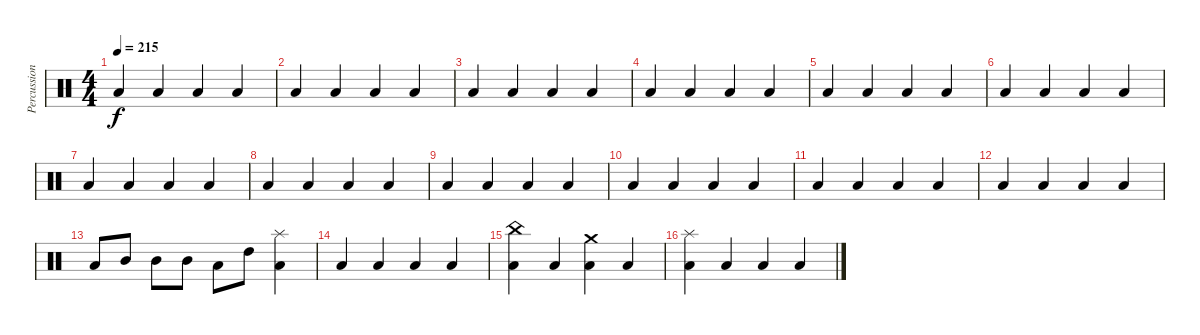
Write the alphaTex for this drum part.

\track ("Percussion" "Percussion") {instrument percussion}
\staff {score}
\articulation defaults
\ts (4 4)
\tempo 215
\clef neutral
\ks c "Low Tom (hit)".4{dy f} "Low Tom (hit)".4 "Low Tom (hit)".4 "Low Tom (hit)".4
|
"Low Tom (hit)".4 "Low Tom (hit)".4 "Low Tom (hit)".4 "Low Tom (hit)".4 |
"Low Tom (hit)".4 "Low Tom (hit)".4 "Low Tom (hit)".4 "Low Tom (hit)".4 |
"Low Tom (hit)".4 "Low Tom (hit)".4 "Low Tom (hit)".4 "Low Tom (hit)".4 |
"Low Tom (hit)".4 "Low Tom (hit)".4 "Low Tom (hit)".4 "Low Tom (hit)".4 |
"Low Tom (hit)".4 "Low Tom (hit)".4 "Low Tom (hit)".4 "Low Tom (hit)".4 |
"Low Tom (hit)".4 "Low Tom (hit)".4 "Low Tom (hit)".4 "Low Tom (hit)".4 |
"Low Tom (hit)".4 "Low Tom (hit)".4 "Low Tom (hit)".4 "Low Tom (hit)".4 |
"Low Tom (hit)".4 "Low Tom (hit)".4 "Low Tom (hit)".4 "Low Tom (hit)".4 |
"Low Tom (hit)".4 "Low Tom (hit)".4 "Low Tom (hit)".4 "Low Tom (hit)".4 |
"Low Tom (hit)".4 "Low Tom (hit)".4 "Low Tom (hit)".4 "Low Tom (hit)".4 |
"Low Tom (hit)".4 "Low Tom (hit)".4 "Low Tom (hit)".4 "Low Tom (hit)".4 |
"Low Tom (hit)".8 "Mid Tom (hit)".8 "Mid Tom (hit)".8 "Mid Tom (hit)".8 "Low Tom (hit)".8 "High Tom (hit)".8 ("Splash (hit)" "Low Tom (hit)").4 |
"Low Tom (hit)".4 "Low Tom (hit)".4 "Low Tom (hit)".4 "Low Tom (hit)".4 |
("China (hit)" "Low Tom (hit)").4 "Low Tom (hit)".4 ("Crash medium (hit)" "Low Tom (hit)").4 "Low Tom (hit)".4 |
("Splash (hit)" "Low Tom (hit)").4 "Low Tom (hit)".4 "Low Tom (hit)".4 "Low Tom (hit)".4
